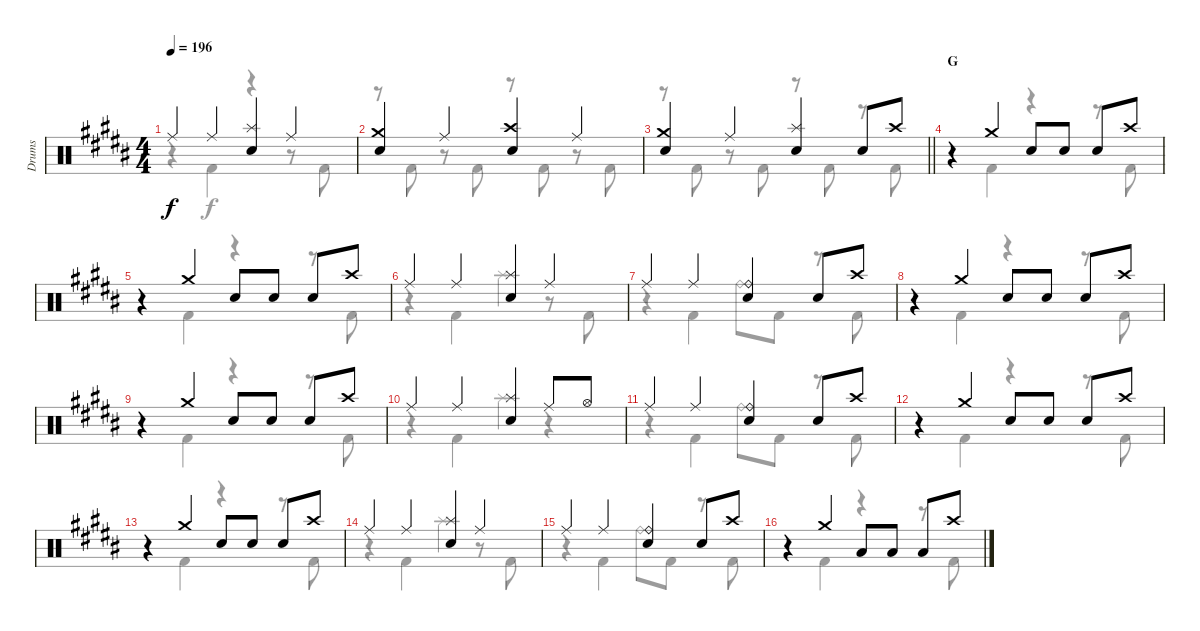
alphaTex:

\track ("Drums" "Drums") {instrument percussion}
\staff {score}
\articulation defaults
\voice
\ts (4 4)
\tempo 196
\clef neutral
\ks b "Ride (middle)".4{dy f} "Ride (middle)".4
("Splash (hit)" "Electric Snare (hit)").4 "Ride (middle)".4 |
("Crash medium (hit)" "Electric Snare (hit)").4 "Ride (middle)".4 ("Crash high (hit)" "Electric Snare (hit)").4 "Ride (middle)".4 |
\barLineRight lightlight
("Crash medium (hit)" "Electric Snare (hit)").4 "Ride (middle)".4 ("Splash (hit)" "Electric Snare (hit)").4 "Electric Snare (hit)".8 "Crash high (hit)".8 |
\section ("" "G")
r.4 "Crash medium (hit)".4 "Electric Snare (hit)".8 "Electric Snare (hit)".8 "Electric Snare (hit)".8 "Crash high (hit)".8 |
r.4 "Crash medium (hit)".4 "Electric Snare (hit)".8 "Electric Snare (hit)".8 "Electric Snare (hit)".8 "Crash high (hit)".8 |
"Ride (middle)".4 "Ride (middle)".4 ("Splash (hit)" "Electric Snare (hit)").4 "Ride (middle)".4 |
"Ride (middle)".4 "Ride (middle)".4 ("Ride (bell)" "Electric Snare (hit)").4 "Electric Snare (hit)".8 "Crash high (hit)".8 |
r.4 "Crash medium (hit)".4 "Electric Snare (hit)".8 "Electric Snare (hit)".8 "Electric Snare (hit)".8 "Crash high (hit)".8 |
r.4 "Crash medium (hit)".4 "Electric Snare (hit)".8 "Electric Snare (hit)".8 "Electric Snare (hit)".8 "Crash high (hit)".8 |
"Ride (middle)".4 "Ride (middle)".4 ("Splash (hit)" "Electric Snare (hit)").4 "Ride (middle)".8 "Hi-Hat (open)".8 |
"Ride (middle)".4 "Ride (middle)".4 ("Ride (bell)" "Electric Snare (hit)").4 "Electric Snare (hit)".8 "Crash high (hit)".8 |
r.4 "Crash medium (hit)".4 "Electric Snare (hit)".8 "Electric Snare (hit)".8 "Electric Snare (hit)".8 "Crash high (hit)".8 |
r.4 "Crash medium (hit)".4 "Electric Snare (hit)".8 "Electric Snare (hit)".8 "Electric Snare (hit)".8 "Crash high (hit)".8 |
"Ride (middle)".4 "Ride (middle)".4 ("Splash (hit)" "Electric Snare (hit)").4 "Ride (middle)".4 |
"Ride (middle)".4 "Ride (middle)".4 ("Ride (bell)" "Electric Snare (hit)").4 "Electric Snare (hit)".8 "Crash high (hit)".8 |
r.4 "Crash medium (hit)".4 "Low Tom (hit)".8 "Low Tom (hit)".8 "Low Tom (hit)".8 "Crash high (hit)".8
\voice
\clef neutral
\ottava regular
\simile none
\ks b
r.4{dy f} "Kick (hit) 2".4 r.4 r.8 "Kick (hit) 2".8 |
r.8 "Kick (hit) 2".8 r.8 "Kick (hit) 2".8 r.8 "Kick (hit) 2".8 r.8 "Kick (hit) 2".8 |
\barLineRight lightlight
r.8 "Kick (hit) 2".8 r.8 "Kick (hit) 2".8 r.8 "Kick (hit) 2".8 r.8 "Kick (hit) 2".8 |
r.4 "Kick (hit) 2".4 r.4 r.8 "Kick (hit) 2".8 |
r.4 "Kick (hit) 2".4 r.4 r.8 "Kick (hit) 2".8 |
r.4 "Kick (hit) 2".4 "Splash (hit)".4 r.8 "Kick (hit) 2".8 |
r.4 "Kick (hit) 2".4 "Ride (bell)".8 "Kick (hit) 2".8 r.8 "Kick (hit) 2".8 |
r.4 "Kick (hit) 2".4 r.4 r.8 "Kick (hit) 2".8 |
r.4 "Kick (hit) 2".4 r.4 r.8 "Kick (hit) 2".8 |
r.4 "Kick (hit) 2".4 "Splash (hit)".4 r.4 |
r.4 "Kick (hit) 2".4 "Ride (bell)".8 "Kick (hit) 2".8 r.8 "Kick (hit) 2".8 |
r.4 "Kick (hit) 2".4 r.4 r.8 "Kick (hit) 2".8 |
r.4 "Kick (hit) 2".4 r.4 r.8 "Kick (hit) 2".8 |
r.4 "Kick (hit) 2".4 "Splash (hit)".4 r.8 "Kick (hit) 2".8 |
r.4 "Kick (hit) 2".4 "Ride (bell)".8 "Kick (hit) 2".8 r.8 "Kick (hit) 2".8 |
r.4 "Kick (hit) 2".4 r.4 r.8 "Kick (hit) 2".8
